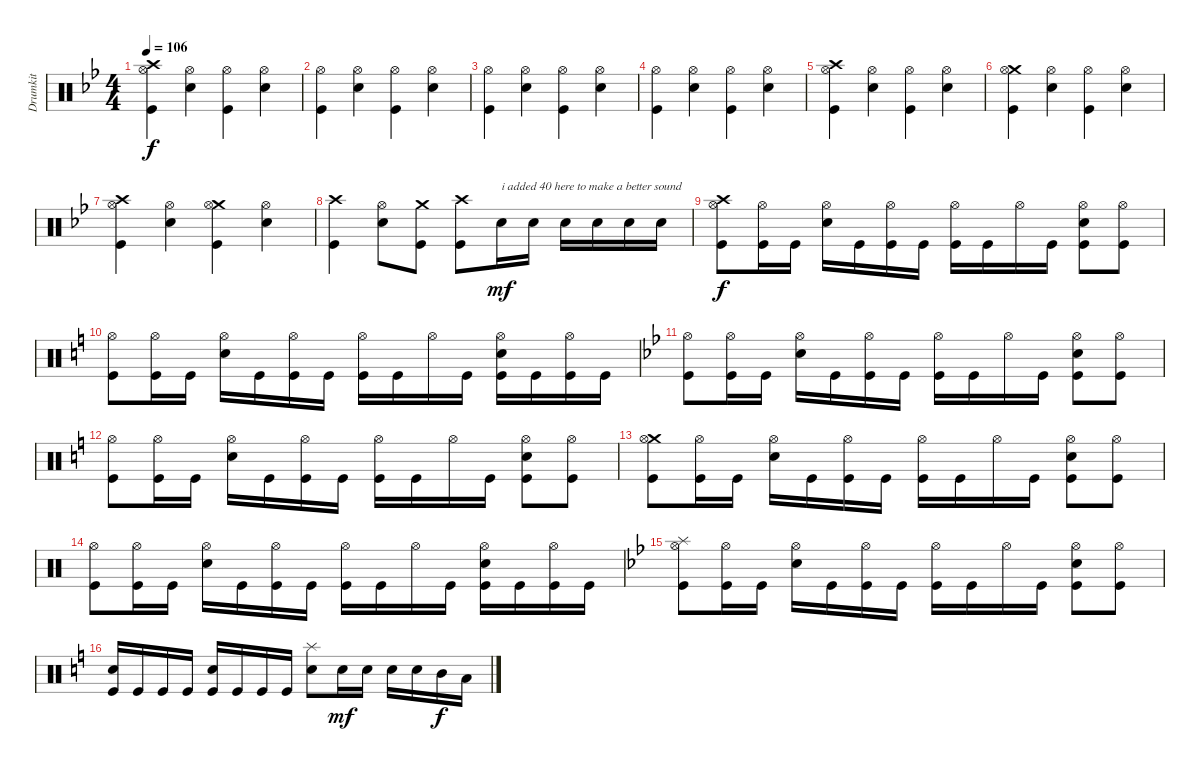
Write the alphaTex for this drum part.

\track ("Drumkit" "Drumkit") {instrument percussion}
\staff {score}
\articulation defaults
\ts (4 4)
\tempo 106
\clef neutral
\ks bb
("Kick (hit)" "Crash high (hit)" "Hi-Hat (open)").4{dy f} ("Hi-Hat (open)" "Snare (hit) 2").4 ("Kick (hit)" "Hi-Hat (open)").4 ("Hi-Hat (open)" "Snare (hit) 2").4 |
("Kick (hit)" "Hi-Hat (open)").4 ("Hi-Hat (open)" "Snare (hit) 2").4 ("Kick (hit)" "Hi-Hat (open)").4 ("Hi-Hat (open)" "Snare (hit) 2").4 |
("Kick (hit)" "Hi-Hat (open)").4 ("Hi-Hat (open)" "Snare (hit) 2").4 ("Kick (hit)" "Hi-Hat (open)").4 ("Hi-Hat (open)" "Snare (hit) 2").4 |
("Kick (hit)" "Hi-Hat (open)").4 ("Hi-Hat (open)" "Snare (hit) 2").4 ("Kick (hit)" "Hi-Hat (open)").4 ("Hi-Hat (open)" "Snare (hit) 2").4 |
("Kick (hit)" "Crash high (hit)" "Hi-Hat (open)").4 ("Hi-Hat (open)" "Snare (hit) 2").4 ("Kick (hit)" "Hi-Hat (open)").4 ("Hi-Hat (open)" "Snare (hit) 2").4 |
("Kick (hit)" "Crash medium (hit)" "Hi-Hat (open)").4 ("Hi-Hat (open)" "Snare (hit) 2").4 ("Kick (hit)" "Hi-Hat (open)").4 ("Hi-Hat (open)" "Snare (hit) 2").4 |
("Kick (hit)" "Crash high (hit)" "Hi-Hat (open)").4 ("Hi-Hat (open)" "Snare (hit) 2").4 ("Kick (hit)" "Crash medium (hit)" "Hi-Hat (open)").4 ("Hi-Hat (open)" "Snare (hit) 2").4 |
("Kick (hit)" "Crash high (hit)").4 ("Hi-Hat (open)" "Snare (hit) 2").8 ("Kick (hit)" "Crash medium (hit)").8 ("Kick (hit)" "Crash high (hit)").8 "Snare (hit) 2".16{txt "i added 40 here to make a better sound" dy mf} "Snare (hit) 2".16 "Snare (hit) 2".16 "Snare (hit) 2".16 "Snare (hit) 2".16 "Snare (hit) 2".16 |
("Kick (hit)" "Crash high (hit)" "Hi-Hat (open)").8{dy f} ("Kick (hit)" "Hi-Hat (open)").16 "Kick (hit)".16 ("Hi-Hat (open)" "Snare (hit) 2").16 "Kick (hit)".16 ("Kick (hit)" "Hi-Hat (open)").16 "Kick (hit)".16 ("Kick (hit)" "Hi-Hat (open)").16 "Kick (hit)".16 "Hi-Hat (open)".16 "Kick (hit)".16 ("Kick (hit)" "Hi-Hat (open)" "Snare (hit) 2").8 ("Kick (hit)" "Hi-Hat (open)").8 |
\ks c
("Kick (hit)" "Hi-Hat (open)").8 ("Kick (hit)" "Hi-Hat (open)").16 "Kick (hit)".16 ("Hi-Hat (open)" "Snare (hit) 2").16 "Kick (hit)".16 ("Kick (hit)" "Hi-Hat (open)").16 "Kick (hit)".16 ("Kick (hit)" "Hi-Hat (open)").16 "Kick (hit)".16 "Hi-Hat (open)".16 "Kick (hit)".16 ("Kick (hit)" "Hi-Hat (open)" "Snare (hit) 2").16 "Kick (hit)".16 ("Kick (hit)" "Hi-Hat (open)").16 "Kick (hit)".16 |
\ks bb
("Kick (hit)" "Hi-Hat (open)").8 ("Kick (hit)" "Hi-Hat (open)").16 "Kick (hit)".16 ("Hi-Hat (open)" "Snare (hit) 2").16 "Kick (hit)".16 ("Kick (hit)" "Hi-Hat (open)").16 "Kick (hit)".16 ("Kick (hit)" "Hi-Hat (open)").16 "Kick (hit)".16 "Hi-Hat (open)".16 "Kick (hit)".16 ("Kick (hit)" "Hi-Hat (open)" "Snare (hit) 2").8 ("Kick (hit)" "Hi-Hat (open)").8 |
\ks c
("Kick (hit)" "Hi-Hat (open)").8 ("Kick (hit)" "Hi-Hat (open)").16 "Kick (hit)".16 ("Hi-Hat (open)" "Snare (hit) 2").16 "Kick (hit)".16 ("Kick (hit)" "Hi-Hat (open)").16 "Kick (hit)".16 ("Kick (hit)" "Hi-Hat (open)").16 "Kick (hit)".16 "Hi-Hat (open)".16 "Kick (hit)".16 ("Kick (hit)" "Hi-Hat (open)" "Snare (hit) 2").8 ("Kick (hit)" "Hi-Hat (open)").8 |
("Kick (hit)" "Crash medium (hit)" "Hi-Hat (open)").8 ("Kick (hit)" "Hi-Hat (open)").16 "Kick (hit)".16 ("Hi-Hat (open)" "Snare (hit) 2").16 "Kick (hit)".16 ("Kick (hit)" "Hi-Hat (open)").16 "Kick (hit)".16 ("Kick (hit)" "Hi-Hat (open)").16 "Kick (hit)".16 "Hi-Hat (open)".16 "Kick (hit)".16 ("Kick (hit)" "Hi-Hat (open)" "Snare (hit) 2").8 ("Kick (hit)" "Hi-Hat (open)").8 |
("Kick (hit)" "Hi-Hat (open)").8 ("Kick (hit)" "Hi-Hat (open)").16 "Kick (hit)".16 ("Hi-Hat (open)" "Snare (hit) 2").16 "Kick (hit)".16 ("Kick (hit)" "Hi-Hat (open)").16 "Kick (hit)".16 ("Kick (hit)" "Hi-Hat (open)").16 "Kick (hit)".16 "Hi-Hat (open)".16 "Kick (hit)".16 ("Kick (hit)" "Hi-Hat (open)" "Snare (hit) 2").16 "Kick (hit)".16 ("Kick (hit)" "Hi-Hat (open)").16 "Kick (hit)".16 |
\ks bb
("Kick (hit)" "Splash (hit)" "Hi-Hat (open)").8 ("Kick (hit)" "Hi-Hat (open)").16 "Kick (hit)".16 ("Hi-Hat (open)" "Snare (hit) 2").16 "Kick (hit)".16 ("Kick (hit)" "Hi-Hat (open)").16 "Kick (hit)".16 ("Kick (hit)" "Hi-Hat (open)").16 "Kick (hit)".16 "Hi-Hat (open)".16 "Kick (hit)".16 ("Kick (hit)" "Hi-Hat (open)" "Snare (hit) 2").8 ("Kick (hit)" "Hi-Hat (open)").8 |
\ks c
("Kick (hit)" "Snare (hit) 2").16 "Kick (hit)".16 "Kick (hit)".16 "Kick (hit)".16 ("Kick (hit)" "Snare (hit) 2").16 "Kick (hit)".16 "Kick (hit)".16 "Kick (hit)".16 ("Splash (hit)" "Snare (hit) 2").8 "Snare (hit) 2".16{dy mf} "Snare (hit) 2".16 "Snare (hit) 2".16 "Snare (hit) 2".16 "Mid Tom (hit)".16{dy f} "Low Tom (hit)".16
